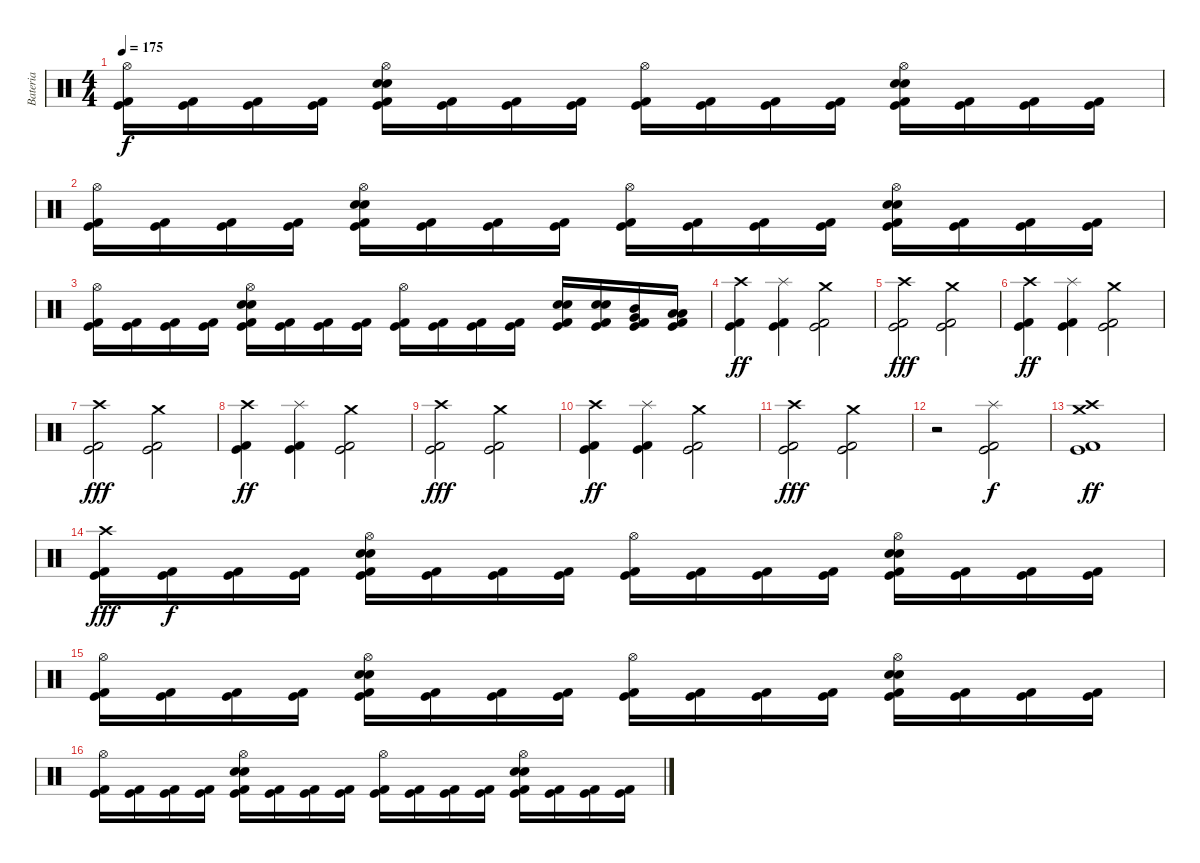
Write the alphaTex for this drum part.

\track ("Bateria" "Bateria") {instrument percussion}
\staff {score}
\articulation defaults
\ts (4 4)
\tempo 175
\clef neutral
\ks c
("Hi-Hat (open)" "Kick (hit) 2" "Kick (hit)").16{dy f} ("Kick (hit) 2" "Kick (hit)").16 ("Kick (hit) 2" "Kick (hit)").16 ("Kick (hit) 2" "Kick (hit)").16 ("Hi-Hat (open)" "Electric Snare (hit)" "Snare (hit) 2" "Kick (hit) 2" "Kick (hit)").16 ("Kick (hit) 2" "Kick (hit)").16 ("Kick (hit) 2" "Kick (hit)").16 ("Kick (hit) 2" "Kick (hit)").16 ("Hi-Hat (open)" "Kick (hit) 2" "Kick (hit)").16 ("Kick (hit) 2" "Kick (hit)").16 ("Kick (hit) 2" "Kick (hit)").16 ("Kick (hit) 2" "Kick (hit)").16 ("Hi-Hat (open)" "Electric Snare (hit)" "Snare (hit) 2" "Kick (hit) 2" "Kick (hit)").16 ("Kick (hit) 2" "Kick (hit)").16 ("Kick (hit) 2" "Kick (hit)").16 ("Kick (hit) 2" "Kick (hit)").16 |
("Hi-Hat (open)" "Kick (hit) 2" "Kick (hit)").16 ("Kick (hit) 2" "Kick (hit)").16 ("Kick (hit) 2" "Kick (hit)").16 ("Kick (hit) 2" "Kick (hit)").16 ("Hi-Hat (open)" "Electric Snare (hit)" "Snare (hit) 2" "Kick (hit) 2" "Kick (hit)").16 ("Kick (hit) 2" "Kick (hit)").16 ("Kick (hit) 2" "Kick (hit)").16 ("Kick (hit) 2" "Kick (hit)").16 ("Hi-Hat (open)" "Kick (hit) 2" "Kick (hit)").16 ("Kick (hit) 2" "Kick (hit)").16 ("Kick (hit) 2" "Kick (hit)").16 ("Kick (hit) 2" "Kick (hit)").16 ("Hi-Hat (open)" "Electric Snare (hit)" "Snare (hit) 2" "Kick (hit) 2" "Kick (hit)").16 ("Kick (hit) 2" "Kick (hit)").16 ("Kick (hit) 2" "Kick (hit)").16 ("Kick (hit) 2" "Kick (hit)").16 |
("Hi-Hat (open)" "Kick (hit) 2" "Kick (hit)").16 ("Kick (hit) 2" "Kick (hit)").16 ("Kick (hit) 2" "Kick (hit)").16 ("Kick (hit) 2" "Kick (hit)").16 ("Hi-Hat (open)" "Electric Snare (hit)" "Snare (hit) 2" "Kick (hit) 2" "Kick (hit)").16 ("Kick (hit) 2" "Kick (hit)").16 ("Kick (hit) 2" "Kick (hit)").16 ("Kick (hit) 2" "Kick (hit)").16 ("Hi-Hat (open)" "Kick (hit) 2" "Kick (hit)").16 ("Kick (hit) 2" "Kick (hit)").16 ("Kick (hit) 2" "Kick (hit)").16 ("Kick (hit) 2" "Kick (hit)").16 ("Electric Snare (hit)" "Snare (hit) 2" "Kick (hit) 2" "Kick (hit)").16 ("Electric Snare (hit)" "Snare (hit) 2" "Kick (hit) 2" "Kick (hit)").16 ("Mid Tom (hit)" "Very Low Tom (hit)" "Kick (hit) 2" "Kick (hit)").16 ("Low Tom (hit)" "Low Floor Tom (hit)" "Kick (hit) 2" "Kick (hit)").16 |
("Crash high (hit)" "Kick (hit) 2" "Kick (hit)").4{dy ff} ("Splash (hit)" "Kick (hit) 2" "Kick (hit)").4 ("Crash medium (hit)" "Kick (hit) 2" "Kick (hit)").2 |
("Crash high (hit)" "Kick (hit) 2" "Kick (hit)").2{dy fff} ("Crash medium (hit)" "Kick (hit) 2" "Kick (hit)").2 |
("Crash high (hit)" "Kick (hit) 2" "Kick (hit)").4{dy ff} ("Splash (hit)" "Kick (hit) 2" "Kick (hit)").4 ("Crash medium (hit)" "Kick (hit) 2" "Kick (hit)").2 |
("Crash high (hit)" "Kick (hit) 2" "Kick (hit)").2{dy fff} ("Crash medium (hit)" "Kick (hit) 2" "Kick (hit)").2 |
("Crash high (hit)" "Kick (hit) 2" "Kick (hit)").4{dy ff} ("Splash (hit)" "Kick (hit) 2" "Kick (hit)").4 ("Crash medium (hit)" "Kick (hit) 2" "Kick (hit)").2 |
("Crash high (hit)" "Kick (hit) 2" "Kick (hit)").2{dy fff} ("Crash medium (hit)" "Kick (hit) 2" "Kick (hit)").2 |
("Crash high (hit)" "Kick (hit) 2" "Kick (hit)").4{dy ff} ("Splash (hit)" "Kick (hit) 2" "Kick (hit)").4 ("Crash medium (hit)" "Kick (hit) 2" "Kick (hit)").2 |
("Crash high (hit)" "Kick (hit) 2" "Kick (hit)").2{dy fff} ("Crash medium (hit)" "Kick (hit) 2" "Kick (hit)").2 |
r.2 ("Splash (hit)" "Kick (hit) 2" "Kick (hit)").2{dy f} |
("Crash high (hit)" "Crash medium (hit)" "Kick (hit) 2" "Kick (hit)").1{dy ff} |
("Crash high (hit)" "Kick (hit) 2" "Kick (hit)").16{dy fff} ("Kick (hit) 2" "Kick (hit)").16{dy f} ("Kick (hit) 2" "Kick (hit)").16 ("Kick (hit) 2" "Kick (hit)").16 ("Hi-Hat (open)" "Electric Snare (hit)" "Snare (hit) 2" "Kick (hit) 2" "Kick (hit)").16 ("Kick (hit) 2" "Kick (hit)").16 ("Kick (hit) 2" "Kick (hit)").16 ("Kick (hit) 2" "Kick (hit)").16 ("Hi-Hat (open)" "Kick (hit) 2" "Kick (hit)").16 ("Kick (hit) 2" "Kick (hit)").16 ("Kick (hit) 2" "Kick (hit)").16 ("Kick (hit) 2" "Kick (hit)").16 ("Hi-Hat (open)" "Electric Snare (hit)" "Snare (hit) 2" "Kick (hit) 2" "Kick (hit)").16 ("Kick (hit) 2" "Kick (hit)").16 ("Kick (hit) 2" "Kick (hit)").16 ("Kick (hit) 2" "Kick (hit)").16 |
("Hi-Hat (open)" "Kick (hit) 2" "Kick (hit)").16 ("Kick (hit) 2" "Kick (hit)").16 ("Kick (hit) 2" "Kick (hit)").16 ("Kick (hit) 2" "Kick (hit)").16 ("Hi-Hat (open)" "Electric Snare (hit)" "Snare (hit) 2" "Kick (hit) 2" "Kick (hit)").16 ("Kick (hit) 2" "Kick (hit)").16 ("Kick (hit) 2" "Kick (hit)").16 ("Kick (hit) 2" "Kick (hit)").16 ("Hi-Hat (open)" "Kick (hit) 2" "Kick (hit)").16 ("Kick (hit) 2" "Kick (hit)").16 ("Kick (hit) 2" "Kick (hit)").16 ("Kick (hit) 2" "Kick (hit)").16 ("Hi-Hat (open)" "Electric Snare (hit)" "Snare (hit) 2" "Kick (hit) 2" "Kick (hit)").16 ("Kick (hit) 2" "Kick (hit)").16 ("Kick (hit) 2" "Kick (hit)").16 ("Kick (hit) 2" "Kick (hit)").16 |
("Hi-Hat (open)" "Kick (hit) 2" "Kick (hit)").16 ("Kick (hit) 2" "Kick (hit)").16 ("Kick (hit) 2" "Kick (hit)").16 ("Kick (hit) 2" "Kick (hit)").16 ("Hi-Hat (open)" "Electric Snare (hit)" "Snare (hit) 2" "Kick (hit) 2" "Kick (hit)").16 ("Kick (hit) 2" "Kick (hit)").16 ("Kick (hit) 2" "Kick (hit)").16 ("Kick (hit) 2" "Kick (hit)").16 ("Hi-Hat (open)" "Kick (hit) 2" "Kick (hit)").16 ("Kick (hit) 2" "Kick (hit)").16 ("Kick (hit) 2" "Kick (hit)").16 ("Kick (hit) 2" "Kick (hit)").16 ("Hi-Hat (open)" "Electric Snare (hit)" "Snare (hit) 2" "Kick (hit) 2" "Kick (hit)").16 ("Kick (hit) 2" "Kick (hit)").16 ("Kick (hit) 2" "Kick (hit)").16 ("Kick (hit) 2" "Kick (hit)").16
